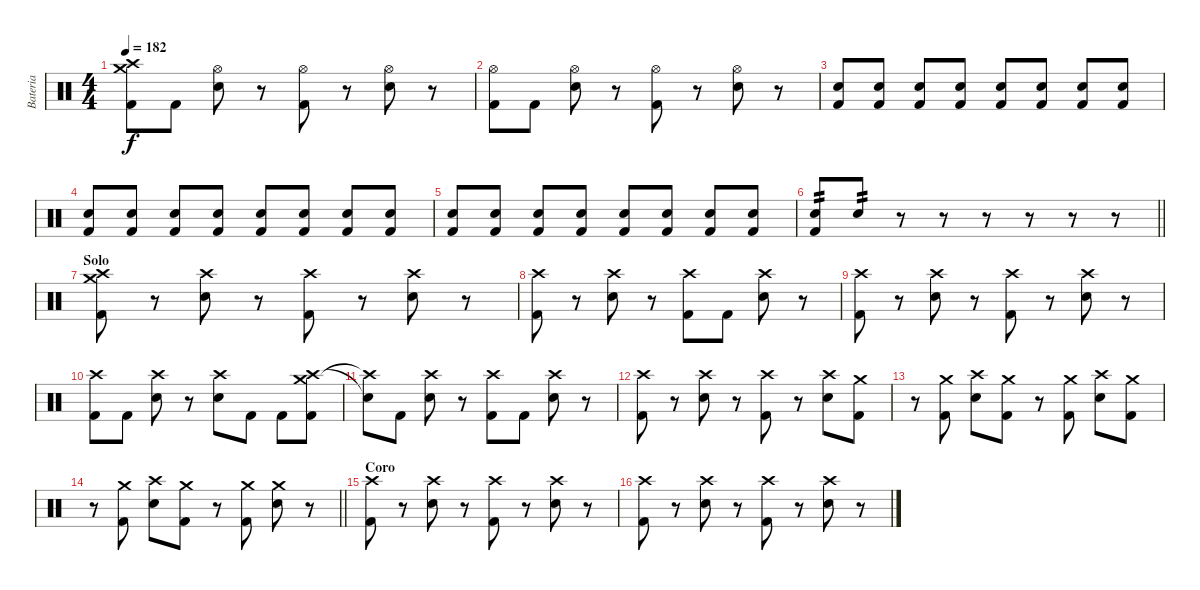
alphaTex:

\track ("Bateria" "Bateria") {instrument percussion}
\staff {score}
\articulation defaults
\ts (4 4)
\tempo 182
\clef neutral
\ks c
("Crash high (hit)" "Crash medium (hit)" "Kick (hit) 2").8{dy f} "Kick (hit) 2".8 ("Hi-Hat (open)" "Electric Snare (hit)").8 r.8 ("Hi-Hat (open)" "Kick (hit) 2").8 r.8 ("Hi-Hat (open)" "Electric Snare (hit)").8 r.8 |
("Hi-Hat (open)" "Kick (hit) 2").8 "Kick (hit) 2".8 ("Hi-Hat (open)" "Electric Snare (hit)").8 r.8 ("Hi-Hat (open)" "Kick (hit) 2").8 r.8 ("Hi-Hat (open)" "Electric Snare (hit)").8 r.8{volume 8} |
("Electric Snare (hit)" "Kick (hit) 2").8{volume 15} ("Electric Snare (hit)" "Kick (hit) 2").8 ("Electric Snare (hit)" "Kick (hit) 2").8 ("Electric Snare (hit)" "Kick (hit) 2").8 ("Electric Snare (hit)" "Kick (hit) 2").8 ("Electric Snare (hit)" "Kick (hit) 2").8 ("Electric Snare (hit)" "Kick (hit) 2").8 ("Electric Snare (hit)" "Kick (hit) 2").8 |
("Electric Snare (hit)" "Kick (hit) 2").8 ("Electric Snare (hit)" "Kick (hit) 2").8 ("Electric Snare (hit)" "Kick (hit) 2").8 ("Electric Snare (hit)" "Kick (hit) 2").8 ("Electric Snare (hit)" "Kick (hit) 2").8 ("Electric Snare (hit)" "Kick (hit) 2").8 ("Electric Snare (hit)" "Kick (hit) 2").8 ("Electric Snare (hit)" "Kick (hit) 2").8 |
("Electric Snare (hit)" "Kick (hit) 2").8 ("Electric Snare (hit)" "Kick (hit) 2").8 ("Electric Snare (hit)" "Kick (hit) 2").8 ("Electric Snare (hit)" "Kick (hit) 2").8 ("Electric Snare (hit)" "Kick (hit) 2").8 ("Electric Snare (hit)" "Kick (hit) 2").8 ("Electric Snare (hit)" "Kick (hit) 2").8 ("Electric Snare (hit)" "Kick (hit) 2").8 |
\barLineRight lightlight
("Electric Snare (hit)" "Kick (hit) 2").8{tp 2} "Electric Snare (hit)".8{tp 2} r.8 r.8 r.8 r.8 r.8 r.8 |
\section ("" "Solo")
("Crash medium (hit)" "Crash high (hit)" "Kick (hit) 2").8 r.8 ("Crash high (hit)" "Electric Snare (hit)").8 r.8 ("Crash high (hit)" "Kick (hit) 2").8 r.8 ("Crash high (hit)" "Electric Snare (hit)").8 r.8 |
("Crash high (hit)" "Kick (hit) 2").8 r.8 ("Crash high (hit)" "Electric Snare (hit)").8 r.8 ("Crash high (hit)" "Kick (hit) 2").8 "Kick (hit) 2".8 ("Crash high (hit)" "Electric Snare (hit)").8 r.8 |
("Crash high (hit)" "Kick (hit) 2").8 r.8 ("Crash high (hit)" "Electric Snare (hit)").8 r.8 ("Crash high (hit)" "Kick (hit) 2").8 r.8 ("Crash high (hit)" "Electric Snare (hit)").8 r.8 |
("Crash high (hit)" "Kick (hit) 2").8 "Kick (hit) 2".8 ("Crash high (hit)" "Electric Snare (hit)").8 r.8 ("Crash high (hit)" "Electric Snare (hit)").8 "Kick (hit) 2".8 "Kick (hit) 2".8 ("Crash high (hit)" "Crash medium (hit)" "Kick (hit) 2").8 |
("Snare (hit)"{t} "Crash high (hit)"{t}).8 "Kick (hit) 2".8 ("Crash high (hit)" "Electric Snare (hit)").8 r.8 ("Crash high (hit)" "Kick (hit) 2").8 "Kick (hit) 2".8 ("Crash high (hit)" "Electric Snare (hit)").8 r.8 |
("Crash high (hit)" "Kick (hit) 2").8 r.8 ("Crash high (hit)" "Electric Snare (hit)").8 r.8 ("Crash high (hit)" "Kick (hit) 2").8 r.8 ("Crash high (hit)" "Electric Snare (hit)").8 ("Crash medium (hit)" "Kick (hit) 2").8 |
r.8 ("Crash medium (hit)" "Kick (hit) 2").8 ("Crash high (hit)" "Electric Snare (hit)").8 ("Crash medium (hit)" "Kick (hit) 2").8 r.8 ("Crash medium (hit)" "Kick (hit) 2").8 ("Crash high (hit)" "Electric Snare (hit)").8 ("Crash medium (hit)" "Kick (hit) 2").8 |
\barLineRight lightlight
r.8 ("Crash medium (hit)" "Kick (hit) 2").8 ("Crash high (hit)" "Electric Snare (hit)").8 ("Crash medium (hit)" "Kick (hit) 2").8 r.8 ("Crash medium (hit)" "Kick (hit) 2").8 ("Crash medium (hit)" "Electric Snare (hit)").8 r.8 |
\section ("" "Coro")
("Crash high (hit)" "Kick (hit) 2").8 r.8 ("Crash high (hit)" "Electric Snare (hit)").8 r.8 ("Crash high (hit)" "Kick (hit) 2").8 r.8 ("Crash high (hit)" "Electric Snare (hit)").8 r.8 |
("Crash high (hit)" "Kick (hit) 2").8 r.8 ("Crash high (hit)" "Electric Snare (hit)").8 r.8 ("Crash high (hit)" "Kick (hit) 2").8 r.8 ("Crash high (hit)" "Electric Snare (hit)").8 r.8
